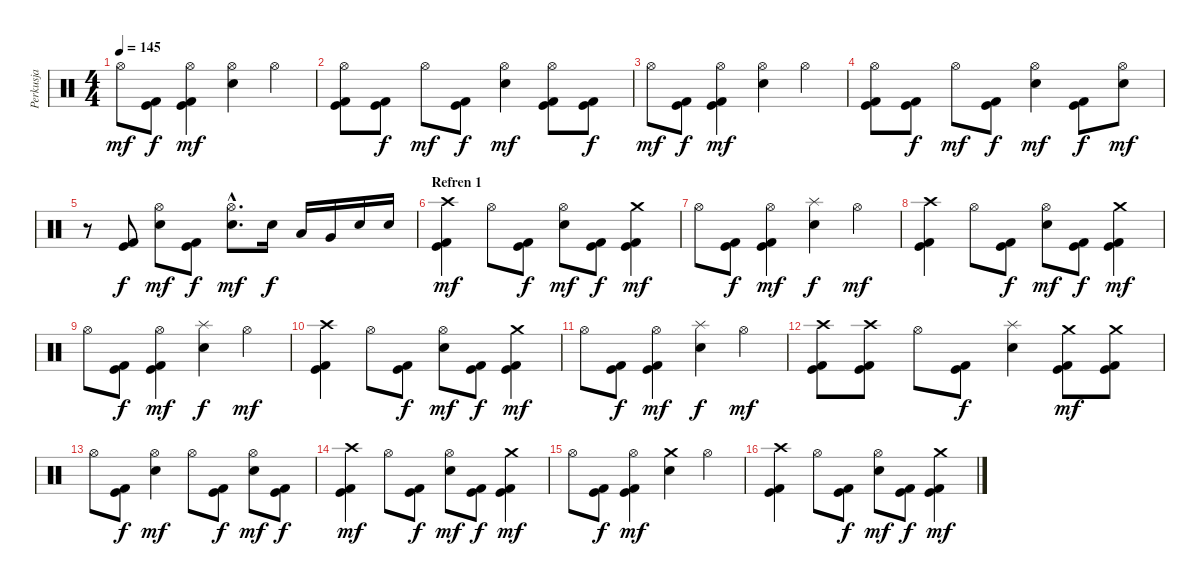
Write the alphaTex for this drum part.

\track ("Perkusja" "Perkusja") {instrument percussion}
\staff {score}
\articulation defaults
\ts (4 4)
\tempo 145
\clef neutral
\ks c "Hi-Hat (open)".8{dy mf}
("Kick (hit) 2" "Kick (hit)").8{dy f} ("Kick (hit) 2" "Kick (hit)" "Hi-Hat (open)").4{dy mf} ("Snare (hit) 2" "Hi-Hat (open)").4 "Hi-Hat (open)".4 |
("Kick (hit) 2" "Kick (hit)" "Hi-Hat (open)").8 ("Kick (hit) 2" "Kick (hit)").8{dy f} "Hi-Hat (open)".8{dy mf} ("Kick (hit) 2" "Kick (hit)").8{dy f} ("Snare (hit) 2" "Hi-Hat (open)").4{dy mf} ("Kick (hit) 2" "Kick (hit)" "Hi-Hat (open)").8 ("Kick (hit) 2" "Kick (hit)").8{dy f} |
"Hi-Hat (open)".8{dy mf} ("Kick (hit) 2" "Kick (hit)").8{dy f} ("Kick (hit) 2" "Kick (hit)" "Hi-Hat (open)").4{dy mf} ("Snare (hit) 2" "Hi-Hat (open)").4 "Hi-Hat (open)".4 |
("Kick (hit) 2" "Kick (hit)" "Hi-Hat (open)").8 ("Kick (hit) 2" "Kick (hit)").8{dy f} "Hi-Hat (open)".8{dy mf} ("Kick (hit) 2" "Kick (hit)").8{dy f} ("Snare (hit) 2" "Hi-Hat (open)").4{dy mf} ("Kick (hit) 2" "Kick (hit)").8{dy f} ("Hi-Hat (open)" "Snare (hit) 2").8{dy mf} |
r.8 ("Kick (hit) 2" "Kick (hit)").8{dy f} ("Snare (hit) 2" "Hi-Hat (open)").8{dy mf} ("Kick (hit) 2" "Kick (hit)").8{dy f} ("Snare (hit) 2"{hac} "Hi-Hat (open)"{hac}).8{d dy mf} "Snare (hit) 2".16{dy f} "Low Tom (hit)".16 "Very Low Tom (hit)".16 "Snare (hit) 2".16 "Snare (hit) 2".16 |
\section ("" "Refren 1")
("Kick (hit) 2" "Kick (hit)" "Crash high (hit)").4{dy mf} "Hi-Hat (open)".8 ("Kick (hit) 2" "Kick (hit)").8{dy f} ("Snare (hit) 2" "Hi-Hat (open)").8{dy mf} ("Kick (hit) 2" "Kick (hit)").8{dy f} ("Kick (hit)" "Kick (hit) 2" "Crash medium (hit)").4{dy mf} |
"Hi-Hat (open)".8 ("Kick (hit) 2" "Kick (hit)").8{dy f} ("Kick (hit) 2" "Kick (hit)" "Hi-Hat (open)").4{dy mf} ("Snare (hit) 2" "Splash (hit)").4{dy f} "Hi-Hat (open)".4{dy mf} |
("Kick (hit) 2" "Kick (hit)" "Crash high (hit)").4 "Hi-Hat (open)".8 ("Kick (hit) 2" "Kick (hit)").8{dy f} ("Snare (hit) 2" "Hi-Hat (open)").8{dy mf} ("Kick (hit) 2" "Kick (hit)").8{dy f} ("Kick (hit)" "Kick (hit) 2" "Crash medium (hit)").4{dy mf} |
"Hi-Hat (open)".8 ("Kick (hit) 2" "Kick (hit)").8{dy f} ("Kick (hit) 2" "Kick (hit)" "Hi-Hat (open)").4{dy mf} ("Snare (hit) 2" "Splash (hit)").4{dy f} "Hi-Hat (open)".4{dy mf} |
("Kick (hit) 2" "Kick (hit)" "Crash high (hit)").4 "Hi-Hat (open)".8 ("Kick (hit) 2" "Kick (hit)").8{dy f} ("Snare (hit) 2" "Hi-Hat (open)").8{dy mf} ("Kick (hit) 2" "Kick (hit)").8{dy f} ("Kick (hit)" "Kick (hit) 2" "Crash medium (hit)").4{dy mf} |
"Hi-Hat (open)".8 ("Kick (hit) 2" "Kick (hit)").8{dy f} ("Kick (hit) 2" "Kick (hit)" "Hi-Hat (open)").4{dy mf} ("Snare (hit) 2" "Splash (hit)").4{dy f} "Hi-Hat (open)".4{dy mf} |
("Kick (hit) 2" "Kick (hit)" "Crash high (hit)").8 ("Kick (hit) 2" "Kick (hit)" "Crash high (hit)").8 "Hi-Hat (open)".8 ("Kick (hit) 2" "Kick (hit)").8{dy f} ("Snare (hit) 2" "Splash (hit)").4 ("Kick (hit) 2" "Kick (hit)" "Crash medium (hit)").8{dy mf} ("Kick (hit)" "Kick (hit) 2" "Crash medium (hit)").8 |
"Hi-Hat (open)".8 ("Kick (hit) 2" "Kick (hit)").8{dy f} ("Snare (hit) 2" "Hi-Hat (open)").4{dy mf} "Hi-Hat (open)".8 ("Kick (hit) 2" "Kick (hit)").8{dy f} ("Snare (hit) 2" "Hi-Hat (open)").8{dy mf} ("Kick (hit) 2" "Kick (hit)").8{dy f} |
("Kick (hit) 2" "Kick (hit)" "Crash high (hit)").4{dy mf} "Hi-Hat (open)".8 ("Kick (hit) 2" "Kick (hit)").8{dy f} ("Snare (hit) 2" "Hi-Hat (open)").8{dy mf} ("Kick (hit) 2" "Kick (hit)").8{dy f} ("Kick (hit)" "Kick (hit) 2" "Crash medium (hit)").4{dy mf} |
"Hi-Hat (open)".8 ("Kick (hit) 2" "Kick (hit)").8{dy f} ("Kick (hit) 2" "Kick (hit)" "Hi-Hat (open)").4{dy mf} ("Snare (hit) 2" "Crash medium (hit)").4 "Hi-Hat (open)".4 |
("Kick (hit) 2" "Kick (hit)" "Crash high (hit)").4 "Hi-Hat (open)".8 ("Kick (hit) 2" "Kick (hit)").8{dy f} ("Snare (hit) 2" "Hi-Hat (open)").8{dy mf} ("Kick (hit) 2" "Kick (hit)").8{dy f} ("Kick (hit)" "Kick (hit) 2" "Crash medium (hit)").4{dy mf}
